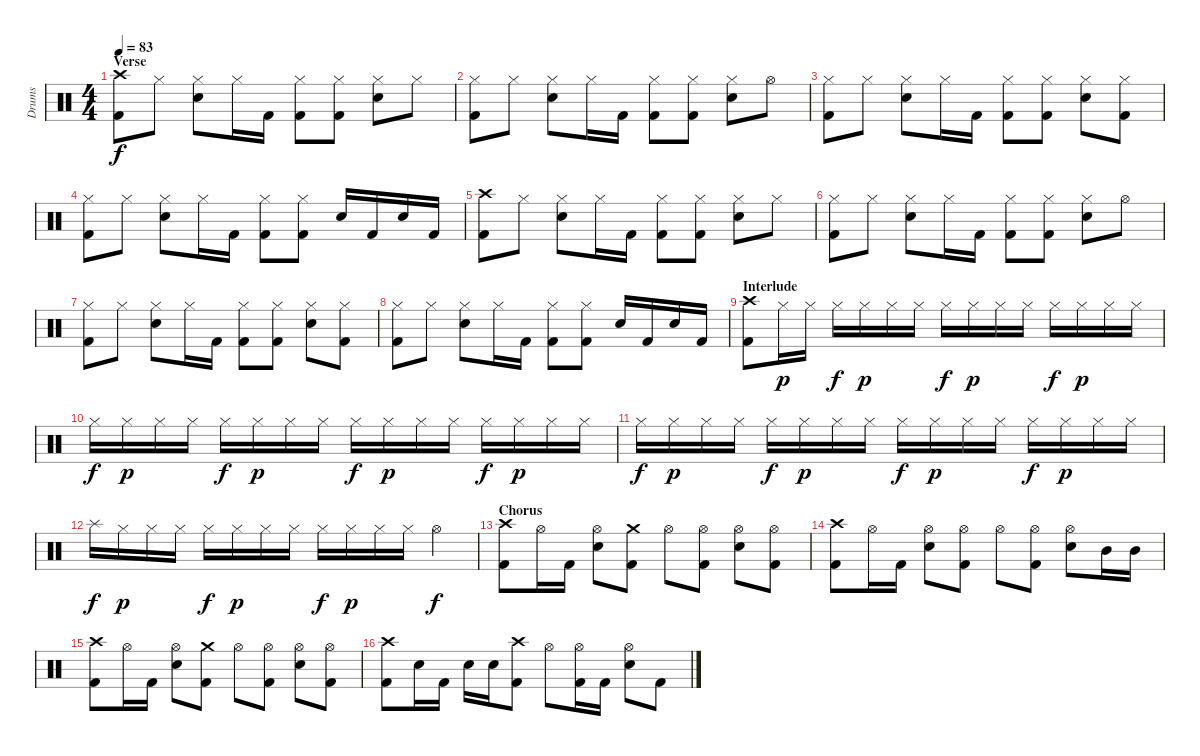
\track ("Drums" "Drums") {instrument percussion}
\staff {score}
\articulation defaults
\ts (4 4)
\section ("" "Verse")
\tempo 83
\clef neutral
\ks c
("Crash high (hit)" "Kick (hit) 2").8{dy f} "Hi-Hat (closed)".8 ("Hi-Hat (closed)" "Electric Snare (hit)").8 "Hi-Hat (closed)".16 "Kick (hit) 2".16 ("Hi-Hat (closed)" "Kick (hit) 2").8 ("Hi-Hat (closed)" "Kick (hit) 2").8 ("Hi-Hat (closed)" "Electric Snare (hit)").8 "Hi-Hat (closed)".8 |
("Hi-Hat (closed)" "Kick (hit) 2").8 "Hi-Hat (closed)".8 ("Hi-Hat (closed)" "Electric Snare (hit)").8 "Hi-Hat (closed)".16 "Kick (hit) 2".16 ("Hi-Hat (closed)" "Kick (hit) 2").8 ("Hi-Hat (closed)" "Kick (hit) 2").8 ("Hi-Hat (closed)" "Electric Snare (hit)").8 "Hi-Hat (open)".8 |
("Hi-Hat (closed)" "Kick (hit) 2").8 "Hi-Hat (closed)".8 ("Hi-Hat (closed)" "Electric Snare (hit)").8 "Hi-Hat (closed)".16 "Kick (hit) 2".16 ("Hi-Hat (closed)" "Kick (hit) 2").8 ("Hi-Hat (closed)" "Kick (hit) 2").8 ("Hi-Hat (closed)" "Electric Snare (hit)").8 ("Hi-Hat (closed)" "Kick (hit) 2").8 |
("Hi-Hat (closed)" "Kick (hit) 2").8 "Hi-Hat (closed)".8 ("Hi-Hat (closed)" "Electric Snare (hit)").8 "Hi-Hat (closed)".16 "Kick (hit) 2".16 ("Hi-Hat (closed)" "Kick (hit) 2").8 ("Hi-Hat (closed)" "Kick (hit) 2").8 "Electric Snare (hit)".16 "Kick (hit) 2".16 "Electric Snare (hit)".16 "Kick (hit) 2".16 |
("Crash high (hit)" "Kick (hit) 2").8 "Hi-Hat (closed)".8 ("Hi-Hat (closed)" "Electric Snare (hit)").8 "Hi-Hat (closed)".16 "Kick (hit) 2".16 ("Hi-Hat (closed)" "Kick (hit) 2").8 ("Hi-Hat (closed)" "Kick (hit) 2").8 ("Hi-Hat (closed)" "Electric Snare (hit)").8 "Hi-Hat (closed)".8 |
("Hi-Hat (closed)" "Kick (hit) 2").8 "Hi-Hat (closed)".8 ("Hi-Hat (closed)" "Electric Snare (hit)").8 "Hi-Hat (closed)".16 "Kick (hit) 2".16 ("Hi-Hat (closed)" "Kick (hit) 2").8 ("Hi-Hat (closed)" "Kick (hit) 2").8 ("Hi-Hat (closed)" "Electric Snare (hit)").8 "Hi-Hat (open)".8 |
("Hi-Hat (closed)" "Kick (hit) 2").8 "Hi-Hat (closed)".8 ("Hi-Hat (closed)" "Electric Snare (hit)").8 "Hi-Hat (closed)".16 "Kick (hit) 2".16 ("Hi-Hat (closed)" "Kick (hit) 2").8 ("Hi-Hat (closed)" "Kick (hit) 2").8 ("Hi-Hat (closed)" "Electric Snare (hit)").8 ("Hi-Hat (closed)" "Kick (hit) 2").8 |
("Hi-Hat (closed)" "Kick (hit) 2").8 "Hi-Hat (closed)".8 ("Hi-Hat (closed)" "Electric Snare (hit)").8 "Hi-Hat (closed)".16 "Kick (hit) 2".16 ("Hi-Hat (closed)" "Kick (hit) 2").8 ("Hi-Hat (closed)" "Kick (hit) 2").8 "Electric Snare (hit)".16 "Kick (hit) 2".16 "Electric Snare (hit)".16 "Kick (hit) 2".16 |
\section ("" "Interlude")
("Crash high (hit)" "Kick (hit) 2").8 "Hi-Hat (closed)".16{dy p} "Hi-Hat (closed)".16 "Hi-Hat (closed)".16{dy f} "Hi-Hat (closed)".16{dy p} "Hi-Hat (closed)".16 "Hi-Hat (closed)".16 "Hi-Hat (closed)".16{dy f} "Hi-Hat (closed)".16{dy p} "Hi-Hat (closed)".16 "Hi-Hat (closed)".16 "Hi-Hat (closed)".16{dy f} "Hi-Hat (closed)".16{dy p} "Hi-Hat (closed)".16 "Hi-Hat (closed)".16 |
"Hi-Hat (closed)".16{dy f} "Hi-Hat (closed)".16{dy p} "Hi-Hat (closed)".16 "Hi-Hat (closed)".16 "Hi-Hat (closed)".16{dy f} "Hi-Hat (closed)".16{dy p} "Hi-Hat (closed)".16 "Hi-Hat (closed)".16 "Hi-Hat (closed)".16{dy f} "Hi-Hat (closed)".16{dy p} "Hi-Hat (closed)".16 "Hi-Hat (closed)".16 "Hi-Hat (closed)".16{dy f} "Hi-Hat (closed)".16{dy p} "Hi-Hat (closed)".16 "Hi-Hat (closed)".16 |
"Hi-Hat (closed)".16{dy f} "Hi-Hat (closed)".16{dy p} "Hi-Hat (closed)".16 "Hi-Hat (closed)".16 "Hi-Hat (closed)".16{dy f} "Hi-Hat (closed)".16{dy p} "Hi-Hat (closed)".16 "Hi-Hat (closed)".16 "Hi-Hat (closed)".16{dy f} "Hi-Hat (closed)".16{dy p} "Hi-Hat (closed)".16 "Hi-Hat (closed)".16 "Hi-Hat (closed)".16{dy f} "Hi-Hat (closed)".16{dy p} "Hi-Hat (closed)".16 "Hi-Hat (closed)".16 |
"Splash (hit)".16{dy f} "Hi-Hat (closed)".16{dy p} "Hi-Hat (closed)".16 "Hi-Hat (closed)".16 "Hi-Hat (closed)".16{dy f} "Hi-Hat (closed)".16{dy p} "Hi-Hat (closed)".16 "Hi-Hat (closed)".16 "Hi-Hat (closed)".16{dy f} "Hi-Hat (closed)".16{dy p} "Hi-Hat (closed)".16 "Hi-Hat (closed)".16 "Hi-Hat (open)".4{dy f} |
\section ("" "Chorus")
("Crash high (hit)" "Kick (hit) 2").8 "Hi-Hat (open)".16 "Kick (hit) 2".16 ("Hi-Hat (open)" "Electric Snare (hit)").8 ("Crash medium (hit)" "Kick (hit) 2").8 "Hi-Hat (open)".8 ("Hi-Hat (open)" "Kick (hit) 2").8 ("Hi-Hat (open)" "Electric Snare (hit)").8 ("Hi-Hat (open)" "Kick (hit) 2").8 |
("Crash high (hit)" "Kick (hit) 2").8 "Hi-Hat (open)".16 "Kick (hit) 2".16 ("Hi-Hat (open)" "Electric Snare (hit)").8 ("Hi-Hat (open)" "Kick (hit) 2").8 "Hi-Hat (open)".8 ("Hi-Hat (open)" "Kick (hit) 2").8 ("Hi-Hat (open)" "Electric Snare (hit)").8 "Mid Tom (hit)".16 "Mid Tom (hit)".16 |
("Crash high (hit)" "Kick (hit) 2").8 "Hi-Hat (open)".16 "Kick (hit) 2".16 ("Hi-Hat (open)" "Electric Snare (hit)").8 ("Crash medium (hit)" "Kick (hit) 2").8 "Hi-Hat (open)".8 ("Hi-Hat (open)" "Kick (hit) 2").8 ("Hi-Hat (open)" "Electric Snare (hit)").8 ("Hi-Hat (open)" "Kick (hit) 2").8 |
("Crash high (hit)" "Kick (hit) 2").8 "Electric Snare (hit)".16 "Kick (hit) 2".16 "Electric Snare (hit)".16 "Electric Snare (hit)".16 ("Crash high (hit)" "Kick (hit) 2").8 "Hi-Hat (open)".8 ("Hi-Hat (open)" "Kick (hit) 2").16 "Kick (hit) 2".16 ("Hi-Hat (open)" "Electric Snare (hit)").8 "Kick (hit) 2".8
